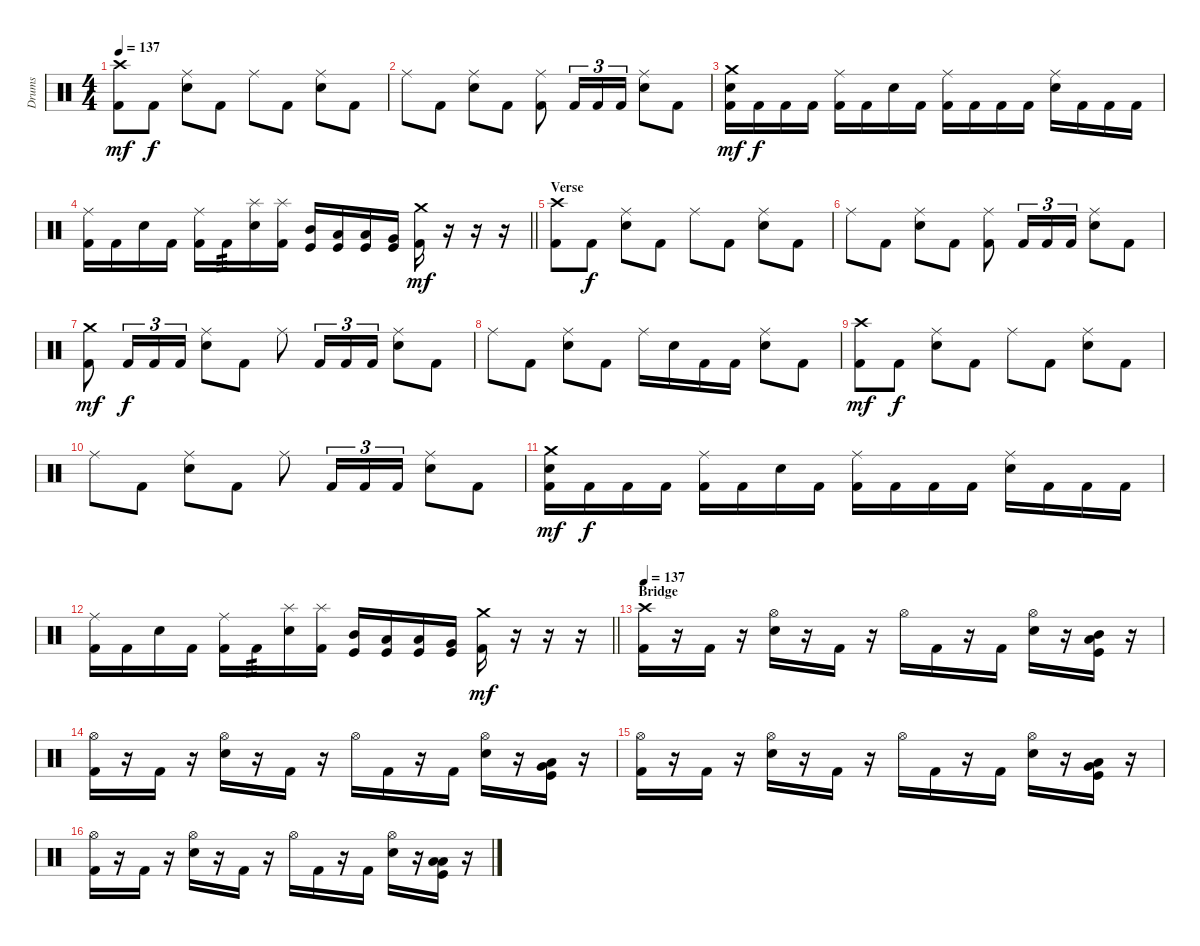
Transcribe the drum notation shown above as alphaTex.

\track ("Drums" "Drums") {instrument percussion}
\staff {score}
\articulation defaults
\ts (4 4)
\tempo 137
\clef neutral
\ks c
("Crash high (hit)" "Kick (hit) 2").8{dy mf} "Kick (hit) 2".8{dy f} ("Ride (middle)" "Electric Snare (hit)").8 "Kick (hit) 2".8 "Ride (middle)".8 "Kick (hit) 2".8 ("Ride (middle)" "Electric Snare (hit)").8 "Kick (hit) 2".8 |
"Ride (middle)".8 "Kick (hit) 2".8 ("Ride (middle)" "Electric Snare (hit)").8 "Kick (hit) 2".8 ("Ride (middle)" "Kick (hit) 2").8 "Kick (hit) 2".16{tu (3 2)} "Kick (hit) 2".16{tu (3 2)} "Kick (hit) 2".16{tu (3 2)} ("Ride (middle)" "Electric Snare (hit)").8 "Kick (hit) 2".8 |
("Crash medium (hit)" "Electric Snare (hit)" "Kick (hit) 2").16{dy mf} "Kick (hit) 2".16{dy f} "Kick (hit) 2".16 "Kick (hit) 2".16 ("Ride (middle)" "Kick (hit) 2").16 "Kick (hit) 2".16 "Electric Snare (hit)".16 "Kick (hit) 2".16 ("Ride (middle)" "Kick (hit) 2").16 "Kick (hit) 2".16 "Kick (hit) 2".16 "Kick (hit) 2".16 ("Ride (middle)" "Electric Snare (hit)").16 "Kick (hit) 2".16 "Kick (hit) 2".16 "Kick (hit) 2".16 |
\barLineRight lightlight
("Ride (middle)" "Kick (hit) 2").16 "Kick (hit) 2".16 "Electric Snare (hit)".16 "Kick (hit) 2".16 ("Ride (middle)" "Kick (hit) 2").16 "Kick (hit) 2".16{tp 3} ("Splash (hit)" "Electric Snare (hit)").16 ("Splash (hit)" "Kick (hit) 2").16 ("Mid Tom (hit)" "Kick (hit)").16 ("Low Tom (hit)" "Kick (hit)").16 ("Low Tom (hit)" "Kick (hit)").16 ("Very Low Tom (hit)" "Kick (hit)").16 ("Crash medium (hit)" "Kick (hit) 2").16{dy mf} r.16 r.16 r.16 |
\section ("" "Verse")
("Crash high (hit)" "Kick (hit) 2").8 "Kick (hit) 2".8{dy f} ("Ride (middle)" "Electric Snare (hit)").8 "Kick (hit) 2".8 "Ride (middle)".8 "Kick (hit) 2".8 ("Ride (middle)" "Electric Snare (hit)").8 "Kick (hit) 2".8 |
"Ride (middle)".8 "Kick (hit) 2".8 ("Ride (middle)" "Electric Snare (hit)").8 "Kick (hit) 2".8 ("Ride (middle)" "Kick (hit) 2").8 "Kick (hit) 2".16{tu (3 2)} "Kick (hit) 2".16{tu (3 2)} "Kick (hit) 2".16{tu (3 2)} ("Ride (middle)" "Electric Snare (hit)").8 "Kick (hit) 2".8 |
("Crash medium (hit)" "Kick (hit) 2").8{dy mf} "Kick (hit) 2".16{tu (3 2) dy f} "Kick (hit) 2".16{tu (3 2)} "Kick (hit) 2".16{tu (3 2)} ("Ride (middle)" "Electric Snare (hit)").8 "Kick (hit) 2".8 "Ride (middle)".8 "Kick (hit) 2".16{tu (3 2)} "Kick (hit) 2".16{tu (3 2)} "Kick (hit) 2".16{tu (3 2)} ("Ride (middle)" "Electric Snare (hit)").8 "Kick (hit) 2".8 |
"Ride (middle)".8 "Kick (hit) 2".8 ("Ride (middle)" "Electric Snare (hit)").8 "Kick (hit) 2".8 "Ride (middle)".16 "Electric Snare (hit)".16 "Kick (hit) 2".16 "Kick (hit) 2".16 ("Ride (middle)" "Electric Snare (hit)").8 "Kick (hit) 2".8 |
("Crash high (hit)" "Kick (hit) 2").8{dy mf} "Kick (hit) 2".8{dy f} ("Ride (middle)" "Electric Snare (hit)").8 "Kick (hit) 2".8 "Ride (middle)".8 "Kick (hit) 2".8 ("Ride (middle)" "Electric Snare (hit)").8 "Kick (hit) 2".8 |
"Ride (middle)".8 "Kick (hit) 2".8 ("Ride (middle)" "Electric Snare (hit)").8 "Kick (hit) 2".8 "Ride (middle)".8 "Kick (hit) 2".16{tu (3 2)} "Kick (hit) 2".16{tu (3 2)} "Kick (hit) 2".16{tu (3 2)} ("Ride (middle)" "Electric Snare (hit)").8 "Kick (hit) 2".8 |
("Crash medium (hit)" "Electric Snare (hit)" "Kick (hit) 2").16{dy mf} "Kick (hit) 2".16{dy f} "Kick (hit) 2".16 "Kick (hit) 2".16 ("Ride (middle)" "Kick (hit) 2").16 "Kick (hit) 2".16 "Electric Snare (hit)".16 "Kick (hit) 2".16 ("Ride (middle)" "Kick (hit) 2").16 "Kick (hit) 2".16 "Kick (hit) 2".16 "Kick (hit) 2".16 ("Ride (middle)" "Electric Snare (hit)").16 "Kick (hit) 2".16 "Kick (hit) 2".16 "Kick (hit) 2".16 |
\barLineRight lightlight
("Ride (middle)" "Kick (hit) 2").16 "Kick (hit) 2".16 "Electric Snare (hit)".16 "Kick (hit) 2".16 ("Ride (middle)" "Kick (hit) 2").16 "Kick (hit) 2".16{tp 3} ("Splash (hit)" "Electric Snare (hit)").16 ("Splash (hit)" "Kick (hit) 2").16 ("Mid Tom (hit)" "Kick (hit)").16 ("Low Tom (hit)" "Kick (hit)").16 ("Low Tom (hit)" "Kick (hit)").16 ("Very Low Tom (hit)" "Kick (hit)").16 ("Crash medium (hit)" "Kick (hit) 2").16{dy mf} r.16 r.16 r.16 |
\section ("" "Bridge")
\tempo 137
("Crash high (hit)" "Kick (hit) 2").16 r.16 "Kick (hit) 2".16 r.16 ("Hi-Hat (open)" "Electric Snare (hit)").16 r.16 "Kick (hit) 2".16 r.16 "Hi-Hat (open)".16 "Kick (hit) 2".16 r.16 "Kick (hit) 2".16 ("Hi-Hat (open)" "Electric Snare (hit)").16 r.16 ("Mid Tom (hit)" "Low Tom (hit)" "Kick (hit)").16 r.16 |
("Hi-Hat (open)" "Kick (hit) 2").16 r.16 "Kick (hit) 2".16 r.16 ("Hi-Hat (open)" "Electric Snare (hit)").16 r.16 "Kick (hit) 2".16 r.16 "Hi-Hat (open)".16 "Kick (hit) 2".16 r.16 "Kick (hit) 2".16 ("Hi-Hat (open)" "Electric Snare (hit)").16 r.16 ("Low Tom (hit)" "Very Low Tom (hit)" "Kick (hit)").16 r.16 |
("Hi-Hat (open)" "Kick (hit) 2").16 r.16 "Kick (hit) 2".16 r.16 ("Hi-Hat (open)" "Electric Snare (hit)").16 r.16 "Kick (hit) 2".16 r.16 "Hi-Hat (open)".16 "Kick (hit) 2".16 r.16 "Kick (hit) 2".16 ("Hi-Hat (open)" "Electric Snare (hit)").16 r.16 ("Very Low Tom (hit)" "Low Floor Tom (hit)" "Kick (hit)").16 r.16 |
("Hi-Hat (open)" "Kick (hit) 2").16 r.16 "Kick (hit) 2".16 r.16 ("Hi-Hat (open)" "Electric Snare (hit)").16 r.16 "Kick (hit) 2".16 r.16 "Hi-Hat (open)".16 "Kick (hit) 2".16 r.16 "Kick (hit) 2".16 ("Hi-Hat (open)" "Electric Snare (hit)").16 r.16 ("Low Floor Tom (hit)" "Low Floor Tom (hit)" "Kick (hit)").16 r.16
